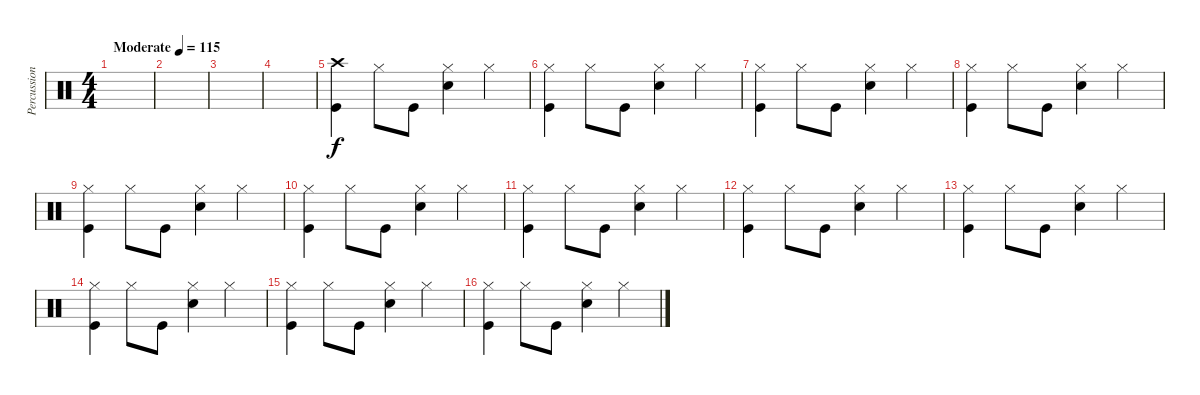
\track ("Percussioni" "Percussion") {instrument percussion}
\staff {score}
\articulation defaults
\ts (4 4)
\tempo (115 "Moderate")
\clef neutral
\ks c
|
|
|
|
("Crash high (hit)" "Kick (hit)").4 "Hi-Hat (closed)".8 "Kick (hit)".8 ("Hi-Hat (closed)" "Snare (hit) 2").4 "Hi-Hat (closed)".4 |
("Hi-Hat (closed)" "Kick (hit)").4 "Hi-Hat (closed)".8 "Kick (hit)".8 ("Hi-Hat (closed)" "Snare (hit) 2").4 "Hi-Hat (closed)".4 |
("Hi-Hat (closed)" "Kick (hit)").4 "Hi-Hat (closed)".8 "Kick (hit)".8 ("Hi-Hat (closed)" "Snare (hit) 2").4 "Hi-Hat (closed)".4 |
("Hi-Hat (closed)" "Kick (hit)").4 "Hi-Hat (closed)".8 "Kick (hit)".8 ("Hi-Hat (closed)" "Snare (hit) 2").4 "Hi-Hat (closed)".4 |
("Hi-Hat (closed)" "Kick (hit)").4 "Hi-Hat (closed)".8 "Kick (hit)".8 ("Hi-Hat (closed)" "Snare (hit) 2").4 "Hi-Hat (closed)".4 |
("Hi-Hat (closed)" "Kick (hit)").4 "Hi-Hat (closed)".8 "Kick (hit)".8 ("Hi-Hat (closed)" "Snare (hit) 2").4 "Hi-Hat (closed)".4 |
("Hi-Hat (closed)" "Kick (hit)").4 "Hi-Hat (closed)".8 "Kick (hit)".8 ("Hi-Hat (closed)" "Snare (hit) 2").4 "Hi-Hat (closed)".4 |
("Hi-Hat (closed)" "Kick (hit)").4 "Hi-Hat (closed)".8 "Kick (hit)".8 ("Hi-Hat (closed)" "Snare (hit) 2").4 "Hi-Hat (closed)".4 |
("Hi-Hat (closed)" "Kick (hit)").4 "Hi-Hat (closed)".8 "Kick (hit)".8 ("Hi-Hat (closed)" "Snare (hit) 2").4 "Hi-Hat (closed)".4 |
("Hi-Hat (closed)" "Kick (hit)").4 "Hi-Hat (closed)".8 "Kick (hit)".8 ("Hi-Hat (closed)" "Snare (hit) 2").4 "Hi-Hat (closed)".4 |
("Hi-Hat (closed)" "Kick (hit)").4 "Hi-Hat (closed)".8 "Kick (hit)".8 ("Hi-Hat (closed)" "Snare (hit) 2").4 "Hi-Hat (closed)".4 |
("Hi-Hat (closed)" "Kick (hit)").4 "Hi-Hat (closed)".8 "Kick (hit)".8 ("Hi-Hat (closed)" "Snare (hit) 2").4 "Hi-Hat (closed)".4
